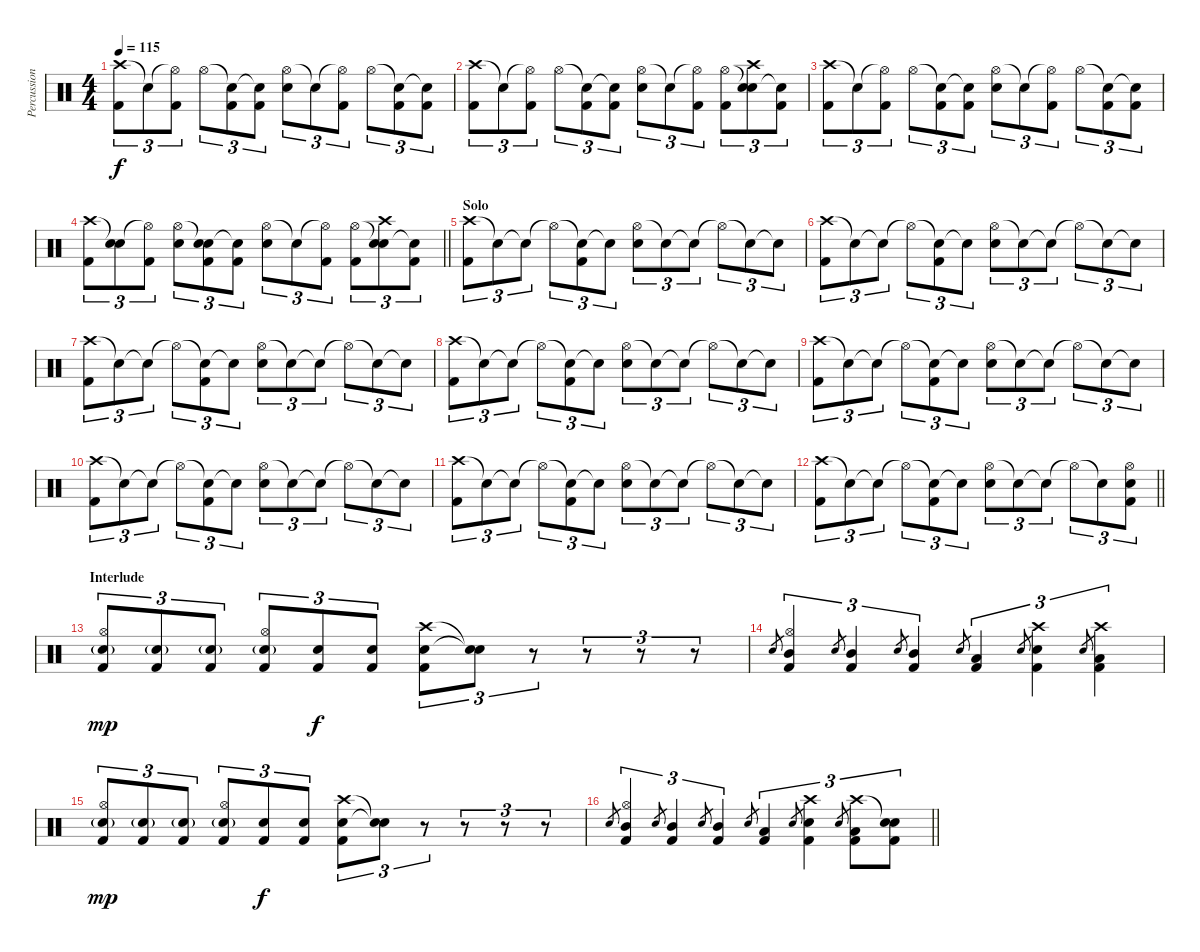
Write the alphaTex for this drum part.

\track ("Percussion" "Percussion") {instrument percussion}
\staff {score}
\articulation defaults
\ts (4 4)
\tempo 115
\clef neutral
\ks c
("Crash high (hit)" "Kick (hit) 2").8{tu (3 2) dy f} "Snare (hit)"{t}.8{tu (3 2)} ("Hi-Hat (open)"{t} "Kick (hit) 2").8{tu (3 2)} "Hi-Hat (open)".8{tu (3 2)} ("Snare (hit)"{t} "Kick (hit) 2").8{tu (3 2)} ("Snare (hit)"{t} "Kick (hit) 2").8{tu (3 2)} ("Hi-Hat (open)" "Electric Snare (hit)").8{tu (3 2)} "Snare (hit)"{t}.8{tu (3 2)} ("Hi-Hat (open)"{t} "Kick (hit) 2").8{tu (3 2)} "Hi-Hat (open)".8{tu (3 2)} ("Snare (hit)"{t} "Kick (hit) 2").8{tu (3 2)} ("Snare (hit)"{t} "Kick (hit) 2").8{tu (3 2)} |
("Crash high (hit)" "Kick (hit) 2").8{tu (3 2)} "Snare (hit)"{t}.8{tu (3 2)} ("Hi-Hat (open)"{t} "Kick (hit) 2").8{tu (3 2)} "Hi-Hat (open)".8{tu (3 2)} ("Snare (hit)"{t} "Kick (hit) 2").8{tu (3 2)} ("Snare (hit)"{t} "Kick (hit) 2").8{tu (3 2)} ("Hi-Hat (open)" "Electric Snare (hit)").8{tu (3 2)} "Snare (hit)"{t}.8{tu (3 2)} ("Hi-Hat (open)"{t} "Kick (hit) 2").8{tu (3 2)} ("Hi-Hat (open)" "Kick (hit) 2").8{tu (3 2)} ("Snare (hit)"{t} "Crash high (hit)" "Electric Snare (hit)").8{tu (3 2)} ("Snare (hit)"{t} "Kick (hit) 2").8{tu (3 2)} |
("Crash high (hit)" "Kick (hit) 2").8{tu (3 2)} "Snare (hit)"{t}.8{tu (3 2)} ("Hi-Hat (open)"{t} "Kick (hit) 2").8{tu (3 2)} "Hi-Hat (open)".8{tu (3 2)} ("Snare (hit)"{t} "Kick (hit) 2").8{tu (3 2)} ("Snare (hit)"{t} "Kick (hit) 2").8{tu (3 2)} ("Hi-Hat (open)" "Electric Snare (hit)").8{tu (3 2)} "Snare (hit)"{t}.8{tu (3 2)} ("Hi-Hat (open)"{t} "Kick (hit) 2").8{tu (3 2)} "Hi-Hat (open)".8{tu (3 2)} ("Snare (hit)"{t} "Kick (hit) 2").8{tu (3 2)} ("Snare (hit)"{t} "Kick (hit) 2").8{tu (3 2)} |
\barLineRight lightlight
("Crash high (hit)" "Kick (hit) 2").8{tu (3 2)} ("Snare (hit)"{t} "Electric Snare (hit)").8{tu (3 2)} ("Hi-Hat (open)"{t} "Kick (hit) 2").8{tu (3 2)} ("Hi-Hat (open)" "Electric Snare (hit)").8{tu (3 2)} ("Snare (hit)"{t} "Electric Snare (hit)" "Kick (hit) 2").8{tu (3 2)} ("Snare (hit)"{t} "Kick (hit) 2").8{tu (3 2)} ("Hi-Hat (open)" "Electric Snare (hit)").8{tu (3 2)} "Snare (hit)"{t}.8{tu (3 2)} ("Hi-Hat (open)"{t} "Kick (hit) 2").8{tu (3 2)} ("Hi-Hat (open)" "Kick (hit) 2").8{tu (3 2)} ("Snare (hit)"{t} "Crash high (hit)" "Electric Snare (hit)").8{tu (3 2)} ("Snare (hit)"{t} "Kick (hit) 2").8{tu (3 2)} |
\section ("" "Solo")
("Crash high (hit)" "Kick (hit) 2").8{tu (3 2)} "Snare (hit)"{t}.8{tu (3 2)} "Snare (hit)"{t}.8{tu (3 2)} "Hi-Hat (open)"{t}.8{tu (3 2)} ("Snare (hit)"{t} "Kick (hit) 2").8{tu (3 2)} "Snare (hit)"{t}.8{tu (3 2)} ("Hi-Hat (open)" "Electric Snare (hit)").8{tu (3 2)} "Snare (hit)"{t}.8{tu (3 2)} "Snare (hit)"{t}.8{tu (3 2)} "Hi-Hat (open)"{t}.8{tu (3 2)} "Snare (hit)"{t}.8{tu (3 2)} "Snare (hit)"{t}.8{tu (3 2)} |
("Crash high (hit)" "Kick (hit) 2").8{tu (3 2)} "Snare (hit)"{t}.8{tu (3 2)} "Snare (hit)"{t}.8{tu (3 2)} "Hi-Hat (open)"{t}.8{tu (3 2)} ("Snare (hit)"{t} "Kick (hit) 2").8{tu (3 2)} "Snare (hit)"{t}.8{tu (3 2)} ("Hi-Hat (open)" "Electric Snare (hit)").8{tu (3 2)} "Snare (hit)"{t}.8{tu (3 2)} "Snare (hit)"{t}.8{tu (3 2)} "Hi-Hat (open)"{t}.8{tu (3 2)} "Snare (hit)"{t}.8{tu (3 2)} "Snare (hit)"{t}.8{tu (3 2)} |
("Crash high (hit)" "Kick (hit) 2").8{tu (3 2)} "Snare (hit)"{t}.8{tu (3 2)} "Snare (hit)"{t}.8{tu (3 2)} "Hi-Hat (open)"{t}.8{tu (3 2)} ("Snare (hit)"{t} "Kick (hit) 2").8{tu (3 2)} "Snare (hit)"{t}.8{tu (3 2)} ("Hi-Hat (open)" "Electric Snare (hit)").8{tu (3 2)} "Snare (hit)"{t}.8{tu (3 2)} "Snare (hit)"{t}.8{tu (3 2)} "Hi-Hat (open)"{t}.8{tu (3 2)} "Snare (hit)"{t}.8{tu (3 2)} "Snare (hit)"{t}.8{tu (3 2)} |
("Crash high (hit)" "Kick (hit) 2").8{tu (3 2)} "Snare (hit)"{t}.8{tu (3 2)} "Snare (hit)"{t}.8{tu (3 2)} "Hi-Hat (open)"{t}.8{tu (3 2)} ("Snare (hit)"{t} "Kick (hit) 2").8{tu (3 2)} "Snare (hit)"{t}.8{tu (3 2)} ("Hi-Hat (open)" "Electric Snare (hit)").8{tu (3 2)} "Snare (hit)"{t}.8{tu (3 2)} "Snare (hit)"{t}.8{tu (3 2)} "Hi-Hat (open)"{t}.8{tu (3 2)} "Snare (hit)"{t}.8{tu (3 2)} "Snare (hit)"{t}.8{tu (3 2)} |
("Crash high (hit)" "Kick (hit) 2").8{tu (3 2)} "Snare (hit)"{t}.8{tu (3 2)} "Snare (hit)"{t}.8{tu (3 2)} "Hi-Hat (open)"{t}.8{tu (3 2)} ("Snare (hit)"{t} "Kick (hit) 2").8{tu (3 2)} "Snare (hit)"{t}.8{tu (3 2)} ("Hi-Hat (open)" "Electric Snare (hit)").8{tu (3 2)} "Snare (hit)"{t}.8{tu (3 2)} "Snare (hit)"{t}.8{tu (3 2)} "Hi-Hat (open)"{t}.8{tu (3 2)} "Snare (hit)"{t}.8{tu (3 2)} "Snare (hit)"{t}.8{tu (3 2)} |
("Crash high (hit)" "Kick (hit) 2").8{tu (3 2)} "Snare (hit)"{t}.8{tu (3 2)} "Snare (hit)"{t}.8{tu (3 2)} "Hi-Hat (open)"{t}.8{tu (3 2)} ("Snare (hit)"{t} "Kick (hit) 2").8{tu (3 2)} "Snare (hit)"{t}.8{tu (3 2)} ("Hi-Hat (open)" "Electric Snare (hit)").8{tu (3 2)} "Snare (hit)"{t}.8{tu (3 2)} "Snare (hit)"{t}.8{tu (3 2)} "Hi-Hat (open)"{t}.8{tu (3 2)} "Snare (hit)"{t}.8{tu (3 2)} "Snare (hit)"{t}.8{tu (3 2)} |
("Crash high (hit)" "Kick (hit) 2").8{tu (3 2)} "Snare (hit)"{t}.8{tu (3 2)} "Snare (hit)"{t}.8{tu (3 2)} "Hi-Hat (open)"{t}.8{tu (3 2)} ("Snare (hit)"{t} "Kick (hit) 2").8{tu (3 2)} "Snare (hit)"{t}.8{tu (3 2)} ("Hi-Hat (open)" "Electric Snare (hit)").8{tu (3 2)} "Snare (hit)"{t}.8{tu (3 2)} "Snare (hit)"{t}.8{tu (3 2)} "Hi-Hat (open)"{t}.8{tu (3 2)} "Snare (hit)"{t}.8{tu (3 2)} "Snare (hit)"{t}.8{tu (3 2)} |
\barLineRight lightlight
("Crash high (hit)" "Kick (hit) 2").8{tu (3 2)} "Snare (hit)"{t}.8{tu (3 2)} "Snare (hit)"{t}.8{tu (3 2)} "Hi-Hat (open)"{t}.8{tu (3 2)} ("Snare (hit)"{t} "Kick (hit) 2").8{tu (3 2)} "Snare (hit)"{t}.8{tu (3 2)} ("Hi-Hat (open)" "Electric Snare (hit)").8{tu (3 2)} "Snare (hit)"{t}.8{tu (3 2)} "Snare (hit)"{t}.8{tu (3 2)} "Hi-Hat (open)"{t}.8{tu (3 2)} "Snare (hit)"{t}.8{tu (3 2)} ("Hi-Hat (open)" "Electric Snare (hit)" "Kick (hit) 2").8{tu (3 2)} |
\section ("" "Interlude")
("Hi-Hat (open)" "Electric Snare (hit)"{g} "Kick (hit) 2").8{tu (3 2) dy mp} ("Electric Snare (hit)"{g} "Kick (hit) 2").8{tu (3 2)} ("Electric Snare (hit)"{g} "Kick (hit) 2").8{tu (3 2)} ("Hi-Hat (open)" "Electric Snare (hit)"{g} "Kick (hit) 2").8{tu (3 2)} ("Electric Snare (hit)" "Kick (hit) 2").8{tu (3 2) dy f} ("Electric Snare (hit)" "Kick (hit) 2").8{tu (3 2)} ("Crash high (hit)" "Electric Snare (hit)" "Kick (hit) 2").8{tu (3 2)} ("Snare (hit)"{t} "Snare (hit)"{t}).8{tu (3 2)} r.8{tu (3 2)} r.8{tu (3 2)} r.8{tu (3 2)} r.8{tu (3 2)} |
"Electric Snare (hit)".8{gr} ("Hi-Hat (open)" "Mid Tom (hit)" "Kick (hit) 2").4{tu (3 2)} "Electric Snare (hit)".8{gr} ("Mid Tom (hit)" "Kick (hit) 2").4{tu (3 2)} "Electric Snare (hit)".8{gr} ("Mid Tom (hit)" "Kick (hit) 2").4{tu (3 2)} "Electric Snare (hit)".8{gr} ("Low Tom (hit)" "Kick (hit) 2").4{tu (3 2)} "Electric Snare (hit)".8{gr} ("Crash high (hit)" "Electric Snare (hit)" "Kick (hit) 2").4{tu (3 2)} "Electric Snare (hit)".8{gr} ("Crash high (hit)" "Low Tom (hit)" "Kick (hit) 2").4{tu (3 2)} |
("Hi-Hat (open)" "Electric Snare (hit)"{g} "Kick (hit) 2").8{tu (3 2) dy mp} ("Electric Snare (hit)"{g} "Kick (hit) 2").8{tu (3 2)} ("Electric Snare (hit)"{g} "Kick (hit) 2").8{tu (3 2)} ("Hi-Hat (open)" "Electric Snare (hit)"{g} "Kick (hit) 2").8{tu (3 2)} ("Electric Snare (hit)" "Kick (hit) 2").8{tu (3 2) dy f} ("Electric Snare (hit)" "Kick (hit) 2").8{tu (3 2)} ("Crash high (hit)" "Electric Snare (hit)" "Kick (hit) 2").8{tu (3 2)} ("Snare (hit)"{t} "Snare (hit)"{t}).8{tu (3 2)} r.8{tu (3 2)} r.8{tu (3 2)} r.8{tu (3 2)} r.8{tu (3 2)} |
\barLineRight lightlight "Electric Snare (hit)".8{gr}
("Hi-Hat (open)" "Mid Tom (hit)" "Kick (hit) 2").4{tu (3 2)} "Electric Snare (hit)".8{gr} ("Mid Tom (hit)" "Kick (hit) 2").4{tu (3 2)} "Electric Snare (hit)".8{gr} ("Mid Tom (hit)" "Kick (hit) 2").4{tu (3 2)} "Electric Snare (hit)".8{gr} ("Low Tom (hit)" "Kick (hit) 2").4{tu (3 2)} "Electric Snare (hit)".8{gr} ("Crash high (hit)" "Electric Snare (hit)" "Kick (hit) 2").4{tu (3 2)} "Electric Snare (hit)".8{gr} ("Crash high (hit)" "Low Tom (hit)" "Kick (hit) 2").8{tu (3 2)} ("Snare (hit)"{t} "Electric Snare (hit)" "Kick (hit) 2").8{tu (3 2)}
